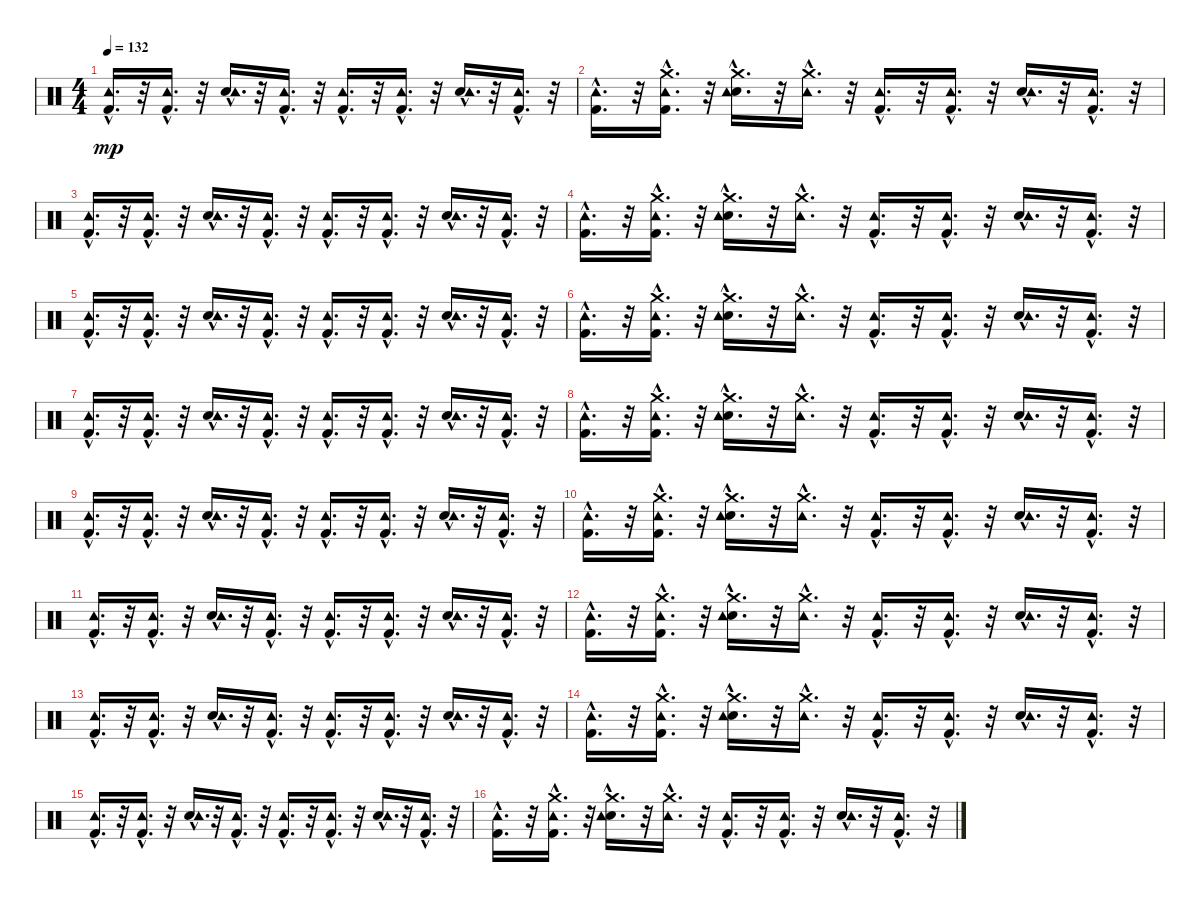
\track "" {instrument percussion}
\staff {score}
\articulation defaults
\ts (4 4)
\tempo 132
\clef neutral
\ks c
("Kick (hit) 2"{hac} "Tambourine (hit)"{hac}).16{d dy mp} r.32 ("Kick (hit) 2"{hac} "Tambourine (hit)"{hac}).16{d} r.32 ("Snare (hit) 2"{hac} "Tambourine (hit)"{hac}).16{d} r.32 ("Kick (hit) 2"{hac} "Tambourine (hit)"{hac}).16{d} r.32 ("Kick (hit) 2"{hac} "Tambourine (hit)"{hac}).16{d} r.32 ("Kick (hit) 2"{hac} "Tambourine (hit)"{hac}).16{d} r.32 ("Snare (hit) 2"{hac} "Tambourine (hit)"{hac}).16{d} r.32 ("Kick (hit) 2"{hac} "Tambourine (hit)"{hac}).16{d} r.32 |
("Kick (hit) 2"{hac} "Tambourine (hit)"{hac}).16{d} r.32 ("Crash medium (hit)"{hac} "Kick (hit) 2"{hac} "Tambourine (hit)"{hac}).16{d} r.32 ("Crash medium (hit)"{hac} "Snare (hit) 2"{hac} "Tambourine (hit)"{hac}).16{d} r.32 ("Crash medium (hit)"{hac} "Tambourine (hit)"{hac}).16{d} r.32 ("Kick (hit) 2"{hac} "Tambourine (hit)"{hac}).16{d} r.32 ("Kick (hit) 2"{hac} "Tambourine (hit)"{hac}).16{d} r.32 ("Snare (hit) 2"{hac} "Tambourine (hit)"{hac}).16{d} r.32 ("Kick (hit) 2"{hac} "Tambourine (hit)"{hac}).16{d} r.32 |
("Kick (hit) 2"{hac} "Tambourine (hit)"{hac}).16{d} r.32 ("Kick (hit) 2"{hac} "Tambourine (hit)"{hac}).16{d} r.32 ("Snare (hit) 2"{hac} "Tambourine (hit)"{hac}).16{d} r.32 ("Kick (hit) 2"{hac} "Tambourine (hit)"{hac}).16{d} r.32 ("Kick (hit) 2"{hac} "Tambourine (hit)"{hac}).16{d} r.32 ("Kick (hit) 2"{hac} "Tambourine (hit)"{hac}).16{d} r.32 ("Snare (hit) 2"{hac} "Tambourine (hit)"{hac}).16{d} r.32 ("Kick (hit) 2"{hac} "Tambourine (hit)"{hac}).16{d} r.32 |
("Kick (hit) 2"{hac} "Tambourine (hit)"{hac}).16{d} r.32 ("Crash medium (hit)"{hac} "Kick (hit) 2"{hac} "Tambourine (hit)"{hac}).16{d} r.32 ("Crash medium (hit)"{hac} "Snare (hit) 2"{hac} "Tambourine (hit)"{hac}).16{d} r.32 ("Crash medium (hit)"{hac} "Tambourine (hit)"{hac}).16{d} r.32 ("Kick (hit) 2"{hac} "Tambourine (hit)"{hac}).16{d} r.32 ("Kick (hit) 2"{hac} "Tambourine (hit)"{hac}).16{d} r.32 ("Snare (hit) 2"{hac} "Tambourine (hit)"{hac}).16{d} r.32 ("Kick (hit) 2"{hac} "Tambourine (hit)"{hac}).16{d} r.32 |
("Kick (hit) 2"{hac} "Tambourine (hit)"{hac}).16{d} r.32 ("Kick (hit) 2"{hac} "Tambourine (hit)"{hac}).16{d} r.32 ("Snare (hit) 2"{hac} "Tambourine (hit)"{hac}).16{d} r.32 ("Kick (hit) 2"{hac} "Tambourine (hit)"{hac}).16{d} r.32 ("Kick (hit) 2"{hac} "Tambourine (hit)"{hac}).16{d} r.32 ("Kick (hit) 2"{hac} "Tambourine (hit)"{hac}).16{d} r.32 ("Snare (hit) 2"{hac} "Tambourine (hit)"{hac}).16{d} r.32 ("Kick (hit) 2"{hac} "Tambourine (hit)"{hac}).16{d} r.32 |
("Kick (hit) 2"{hac} "Tambourine (hit)"{hac}).16{d} r.32 ("Crash medium (hit)"{hac} "Kick (hit) 2"{hac} "Tambourine (hit)"{hac}).16{d} r.32 ("Crash medium (hit)"{hac} "Snare (hit) 2"{hac} "Tambourine (hit)"{hac}).16{d} r.32 ("Crash medium (hit)"{hac} "Tambourine (hit)"{hac}).16{d} r.32 ("Kick (hit) 2"{hac} "Tambourine (hit)"{hac}).16{d} r.32 ("Kick (hit) 2"{hac} "Tambourine (hit)"{hac}).16{d} r.32 ("Snare (hit) 2"{hac} "Tambourine (hit)"{hac}).16{d} r.32 ("Kick (hit) 2"{hac} "Tambourine (hit)"{hac}).16{d} r.32 |
("Kick (hit) 2"{hac} "Tambourine (hit)"{hac}).16{d} r.32 ("Kick (hit) 2"{hac} "Tambourine (hit)"{hac}).16{d} r.32 ("Snare (hit) 2"{hac} "Tambourine (hit)"{hac}).16{d} r.32 ("Kick (hit) 2"{hac} "Tambourine (hit)"{hac}).16{d} r.32 ("Kick (hit) 2"{hac} "Tambourine (hit)"{hac}).16{d} r.32 ("Kick (hit) 2"{hac} "Tambourine (hit)"{hac}).16{d} r.32 ("Snare (hit) 2"{hac} "Tambourine (hit)"{hac}).16{d} r.32 ("Kick (hit) 2"{hac} "Tambourine (hit)"{hac}).16{d} r.32 |
("Kick (hit) 2"{hac} "Tambourine (hit)"{hac}).16{d} r.32 ("Crash medium (hit)"{hac} "Kick (hit) 2"{hac} "Tambourine (hit)"{hac}).16{d} r.32 ("Crash medium (hit)"{hac} "Snare (hit) 2"{hac} "Tambourine (hit)"{hac}).16{d} r.32 ("Crash medium (hit)"{hac} "Tambourine (hit)"{hac}).16{d} r.32 ("Kick (hit) 2"{hac} "Tambourine (hit)"{hac}).16{d} r.32 ("Kick (hit) 2"{hac} "Tambourine (hit)"{hac}).16{d} r.32 ("Snare (hit) 2"{hac} "Tambourine (hit)"{hac}).16{d} r.32 ("Kick (hit) 2"{hac} "Tambourine (hit)"{hac}).16{d} r.32 |
("Kick (hit) 2"{hac} "Tambourine (hit)"{hac}).16{d} r.32 ("Kick (hit) 2"{hac} "Tambourine (hit)"{hac}).16{d} r.32 ("Snare (hit) 2"{hac} "Tambourine (hit)"{hac}).16{d} r.32 ("Kick (hit) 2"{hac} "Tambourine (hit)"{hac}).16{d} r.32 ("Kick (hit) 2"{hac} "Tambourine (hit)"{hac}).16{d} r.32 ("Kick (hit) 2"{hac} "Tambourine (hit)"{hac}).16{d} r.32 ("Snare (hit) 2"{hac} "Tambourine (hit)"{hac}).16{d} r.32 ("Kick (hit) 2"{hac} "Tambourine (hit)"{hac}).16{d} r.32 |
("Kick (hit) 2"{hac} "Tambourine (hit)"{hac}).16{d} r.32 ("Crash medium (hit)"{hac} "Kick (hit) 2"{hac} "Tambourine (hit)"{hac}).16{d} r.32 ("Crash medium (hit)"{hac} "Snare (hit) 2"{hac} "Tambourine (hit)"{hac}).16{d} r.32 ("Crash medium (hit)"{hac} "Tambourine (hit)"{hac}).16{d} r.32 ("Kick (hit) 2"{hac} "Tambourine (hit)"{hac}).16{d} r.32 ("Kick (hit) 2"{hac} "Tambourine (hit)"{hac}).16{d} r.32 ("Snare (hit) 2"{hac} "Tambourine (hit)"{hac}).16{d} r.32 ("Kick (hit) 2"{hac} "Tambourine (hit)"{hac}).16{d} r.32 |
("Kick (hit) 2"{hac} "Tambourine (hit)"{hac}).16{d} r.32 ("Kick (hit) 2"{hac} "Tambourine (hit)"{hac}).16{d} r.32 ("Snare (hit) 2"{hac} "Tambourine (hit)"{hac}).16{d} r.32 ("Kick (hit) 2"{hac} "Tambourine (hit)"{hac}).16{d} r.32 ("Kick (hit) 2"{hac} "Tambourine (hit)"{hac}).16{d} r.32 ("Kick (hit) 2"{hac} "Tambourine (hit)"{hac}).16{d} r.32 ("Snare (hit) 2"{hac} "Tambourine (hit)"{hac}).16{d} r.32 ("Kick (hit) 2"{hac} "Tambourine (hit)"{hac}).16{d} r.32 |
("Kick (hit) 2"{hac} "Tambourine (hit)"{hac}).16{d} r.32 ("Crash medium (hit)"{hac} "Kick (hit) 2"{hac} "Tambourine (hit)"{hac}).16{d} r.32 ("Crash medium (hit)"{hac} "Snare (hit) 2"{hac} "Tambourine (hit)"{hac}).16{d} r.32 ("Crash medium (hit)"{hac} "Tambourine (hit)"{hac}).16{d} r.32 ("Kick (hit) 2"{hac} "Tambourine (hit)"{hac}).16{d} r.32 ("Kick (hit) 2"{hac} "Tambourine (hit)"{hac}).16{d} r.32 ("Snare (hit) 2"{hac} "Tambourine (hit)"{hac}).16{d} r.32 ("Kick (hit) 2"{hac} "Tambourine (hit)"{hac}).16{d} r.32 |
("Kick (hit) 2"{hac} "Tambourine (hit)"{hac}).16{d} r.32 ("Kick (hit) 2"{hac} "Tambourine (hit)"{hac}).16{d} r.32 ("Snare (hit) 2"{hac} "Tambourine (hit)"{hac}).16{d} r.32 ("Kick (hit) 2"{hac} "Tambourine (hit)"{hac}).16{d} r.32 ("Kick (hit) 2"{hac} "Tambourine (hit)"{hac}).16{d} r.32 ("Kick (hit) 2"{hac} "Tambourine (hit)"{hac}).16{d} r.32 ("Snare (hit) 2"{hac} "Tambourine (hit)"{hac}).16{d} r.32 ("Kick (hit) 2"{hac} "Tambourine (hit)"{hac}).16{d} r.32 |
("Kick (hit) 2"{hac} "Tambourine (hit)"{hac}).16{d} r.32 ("Crash medium (hit)"{hac} "Kick (hit) 2"{hac} "Tambourine (hit)"{hac}).16{d} r.32 ("Crash medium (hit)"{hac} "Snare (hit) 2"{hac} "Tambourine (hit)"{hac}).16{d} r.32 ("Crash medium (hit)"{hac} "Tambourine (hit)"{hac}).16{d} r.32 ("Kick (hit) 2"{hac} "Tambourine (hit)"{hac}).16{d} r.32 ("Kick (hit) 2"{hac} "Tambourine (hit)"{hac}).16{d} r.32 ("Snare (hit) 2"{hac} "Tambourine (hit)"{hac}).16{d} r.32 ("Kick (hit) 2"{hac} "Tambourine (hit)"{hac}).16{d} r.32 |
("Kick (hit) 2"{hac} "Tambourine (hit)"{hac}).16{d} r.32 ("Kick (hit) 2"{hac} "Tambourine (hit)"{hac}).16{d} r.32 ("Snare (hit) 2"{hac} "Tambourine (hit)"{hac}).16{d} r.32 ("Kick (hit) 2"{hac} "Tambourine (hit)"{hac}).16{d} r.32 ("Kick (hit) 2"{hac} "Tambourine (hit)"{hac}).16{d} r.32 ("Kick (hit) 2"{hac} "Tambourine (hit)"{hac}).16{d} r.32 ("Snare (hit) 2"{hac} "Tambourine (hit)"{hac}).16{d} r.32 ("Kick (hit) 2"{hac} "Tambourine (hit)"{hac}).16{d} r.32 |
("Kick (hit) 2"{hac} "Tambourine (hit)"{hac}).16{d} r.32 ("Crash medium (hit)"{hac} "Kick (hit) 2"{hac} "Tambourine (hit)"{hac}).16{d} r.32 ("Crash medium (hit)"{hac} "Snare (hit) 2"{hac} "Tambourine (hit)"{hac}).16{d} r.32 ("Crash medium (hit)"{hac} "Tambourine (hit)"{hac}).16{d} r.32 ("Kick (hit) 2"{hac} "Tambourine (hit)"{hac}).16{d} r.32 ("Kick (hit) 2"{hac} "Tambourine (hit)"{hac}).16{d} r.32 ("Snare (hit) 2"{hac} "Tambourine (hit)"{hac}).16{d} r.32 ("Tambourine (hit)"{hac} "Kick (hit) 2"{hac}).16{d} r.32
